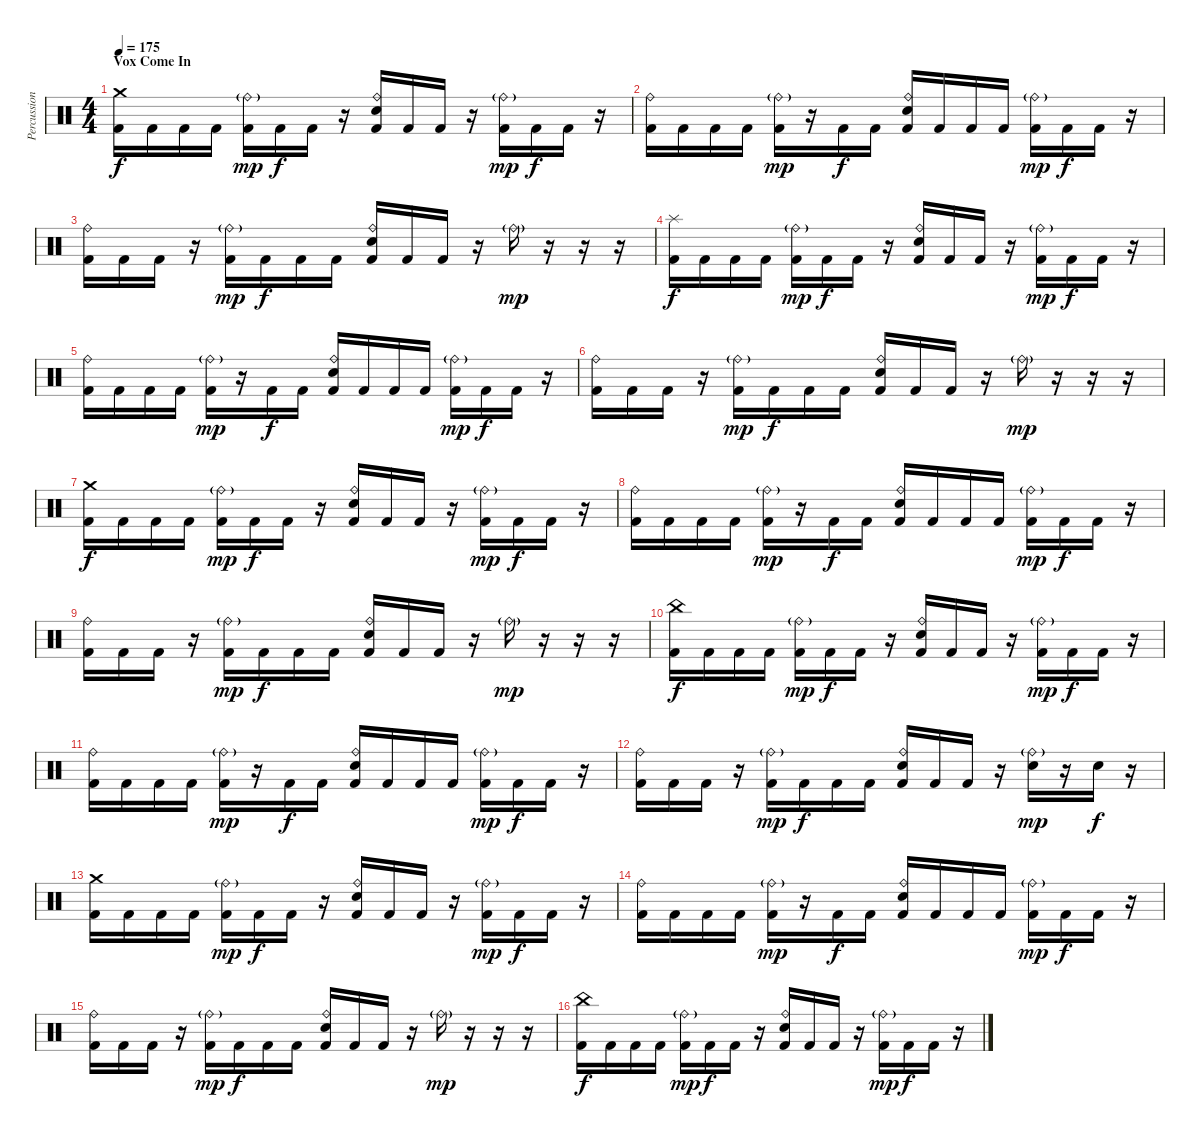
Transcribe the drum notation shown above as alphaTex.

\track ("Percussion" "Percussion") {instrument percussion}
\staff {score}
\articulation defaults
\ts (4 4)
\section ("" "Vox Come In")
\tempo 175
\clef neutral
\ks c
("Crash medium (hit)" "Kick (hit) 2").16{dy f} "Kick (hit) 2".16 "Kick (hit) 2".16 "Kick (hit) 2".16 ("Ride (bell)"{g} "Kick (hit) 2").16{dy mp} "Kick (hit) 2".16{dy f} "Kick (hit) 2".16 r.16 ("Ride (bell)" "Electric Snare (hit)" "Kick (hit) 2").16 "Kick (hit) 2".16 "Kick (hit) 2".16 r.16 ("Ride (bell)"{g} "Kick (hit) 2").16{dy mp} "Kick (hit) 2".16{dy f} "Kick (hit) 2".16 r.16 |
("Ride (bell)" "Kick (hit) 2").16 "Kick (hit) 2".16 "Kick (hit) 2".16 "Kick (hit) 2".16 ("Ride (bell)"{g} "Kick (hit) 2").16{dy mp} r.16 "Kick (hit) 2".16{dy f} "Kick (hit) 2".16 ("Ride (bell)" "Electric Snare (hit)" "Kick (hit) 2").16 "Kick (hit) 2".16 "Kick (hit) 2".16 "Kick (hit) 2".16 ("Ride (bell)"{g} "Kick (hit) 2").16{dy mp} "Kick (hit) 2".16{dy f} "Kick (hit) 2".16 r.16 |
("Ride (bell)" "Kick (hit) 2").16 "Kick (hit) 2".16 "Kick (hit) 2".16 r.16 ("Ride (bell)"{g} "Kick (hit) 2").16{dy mp} "Kick (hit) 2".16{dy f} "Kick (hit) 2".16 "Kick (hit) 2".16 ("Ride (bell)" "Electric Snare (hit)" "Kick (hit) 2").16 "Kick (hit) 2".16 "Kick (hit) 2".16 r.16 "Ride (bell)"{g}.16{dy mp} r.16 r.16 r.16 |
("Splash (hit)" "Kick (hit) 2").16{dy f} "Kick (hit) 2".16 "Kick (hit) 2".16 "Kick (hit) 2".16 ("Ride (bell)"{g} "Kick (hit) 2").16{dy mp} "Kick (hit) 2".16{dy f} "Kick (hit) 2".16 r.16 ("Ride (bell)" "Electric Snare (hit)" "Kick (hit) 2").16 "Kick (hit) 2".16 "Kick (hit) 2".16 r.16 ("Ride (bell)"{g} "Kick (hit) 2").16{dy mp} "Kick (hit) 2".16{dy f} "Kick (hit) 2".16 r.16 |
("Ride (bell)" "Kick (hit) 2").16 "Kick (hit) 2".16 "Kick (hit) 2".16 "Kick (hit) 2".16 ("Ride (bell)"{g} "Kick (hit) 2").16{dy mp} r.16 "Kick (hit) 2".16{dy f} "Kick (hit) 2".16 ("Ride (bell)" "Electric Snare (hit)" "Kick (hit) 2").16 "Kick (hit) 2".16 "Kick (hit) 2".16 "Kick (hit) 2".16 ("Ride (bell)"{g} "Kick (hit) 2").16{dy mp} "Kick (hit) 2".16{dy f} "Kick (hit) 2".16 r.16 |
("Ride (bell)" "Kick (hit) 2").16 "Kick (hit) 2".16 "Kick (hit) 2".16 r.16 ("Ride (bell)"{g} "Kick (hit) 2").16{dy mp} "Kick (hit) 2".16{dy f} "Kick (hit) 2".16 "Kick (hit) 2".16 ("Ride (bell)" "Electric Snare (hit)" "Kick (hit) 2").16 "Kick (hit) 2".16 "Kick (hit) 2".16 r.16 "Ride (bell)"{g}.16{dy mp} r.16 r.16 r.16 |
("Crash medium (hit)" "Kick (hit) 2").16{dy f} "Kick (hit) 2".16 "Kick (hit) 2".16 "Kick (hit) 2".16 ("Ride (bell)"{g} "Kick (hit) 2").16{dy mp} "Kick (hit) 2".16{dy f} "Kick (hit) 2".16 r.16 ("Ride (bell)" "Electric Snare (hit)" "Kick (hit) 2").16 "Kick (hit) 2".16 "Kick (hit) 2".16 r.16 ("Ride (bell)"{g} "Kick (hit) 2").16{dy mp} "Kick (hit) 2".16{dy f} "Kick (hit) 2".16 r.16 |
("Ride (bell)" "Kick (hit) 2").16 "Kick (hit) 2".16 "Kick (hit) 2".16 "Kick (hit) 2".16 ("Ride (bell)"{g} "Kick (hit) 2").16{dy mp} r.16 "Kick (hit) 2".16{dy f} "Kick (hit) 2".16 ("Ride (bell)" "Electric Snare (hit)" "Kick (hit) 2").16 "Kick (hit) 2".16 "Kick (hit) 2".16 "Kick (hit) 2".16 ("Ride (bell)"{g} "Kick (hit) 2").16{dy mp} "Kick (hit) 2".16{dy f} "Kick (hit) 2".16 r.16 |
("Ride (bell)" "Kick (hit) 2").16 "Kick (hit) 2".16 "Kick (hit) 2".16 r.16 ("Ride (bell)"{g} "Kick (hit) 2").16{dy mp} "Kick (hit) 2".16{dy f} "Kick (hit) 2".16 "Kick (hit) 2".16 ("Ride (bell)" "Electric Snare (hit)" "Kick (hit) 2").16 "Kick (hit) 2".16 "Kick (hit) 2".16 r.16 "Ride (bell)"{g}.16{dy mp} r.16 r.16 r.16 |
("China (hit)" "Kick (hit) 2").16{dy f} "Kick (hit) 2".16 "Kick (hit) 2".16 "Kick (hit) 2".16 ("Ride (bell)"{g} "Kick (hit) 2").16{dy mp} "Kick (hit) 2".16{dy f} "Kick (hit) 2".16 r.16 ("Ride (bell)" "Electric Snare (hit)" "Kick (hit) 2").16 "Kick (hit) 2".16 "Kick (hit) 2".16 r.16 ("Ride (bell)"{g} "Kick (hit) 2").16{dy mp} "Kick (hit) 2".16{dy f} "Kick (hit) 2".16 r.16 |
("Ride (bell)" "Kick (hit) 2").16 "Kick (hit) 2".16 "Kick (hit) 2".16 "Kick (hit) 2".16 ("Ride (bell)"{g} "Kick (hit) 2").16{dy mp} r.16 "Kick (hit) 2".16{dy f} "Kick (hit) 2".16 ("Ride (bell)" "Electric Snare (hit)" "Kick (hit) 2").16 "Kick (hit) 2".16 "Kick (hit) 2".16 "Kick (hit) 2".16 ("Ride (bell)"{g} "Kick (hit) 2").16{dy mp} "Kick (hit) 2".16{dy f} "Kick (hit) 2".16 r.16 |
("Ride (bell)" "Kick (hit) 2").16 "Kick (hit) 2".16 "Kick (hit) 2".16 r.16 ("Ride (bell)"{g} "Kick (hit) 2").16{dy mp} "Kick (hit) 2".16{dy f} "Kick (hit) 2".16 "Kick (hit) 2".16 ("Ride (bell)" "Electric Snare (hit)" "Kick (hit) 2").16 "Kick (hit) 2".16 "Kick (hit) 2".16 r.16 ("Ride (bell)"{g} "Electric Snare (hit)").16{dy mp} r.16 "Electric Snare (hit)".16{dy f} r.16 |
("Crash medium (hit)" "Kick (hit) 2").16 "Kick (hit) 2".16 "Kick (hit) 2".16 "Kick (hit) 2".16 ("Ride (bell)"{g} "Kick (hit) 2").16{dy mp} "Kick (hit) 2".16{dy f} "Kick (hit) 2".16 r.16 ("Ride (bell)" "Electric Snare (hit)" "Kick (hit) 2").16 "Kick (hit) 2".16 "Kick (hit) 2".16 r.16 ("Ride (bell)"{g} "Kick (hit) 2").16{dy mp} "Kick (hit) 2".16{dy f} "Kick (hit) 2".16 r.16 |
("Ride (bell)" "Kick (hit) 2").16 "Kick (hit) 2".16 "Kick (hit) 2".16 "Kick (hit) 2".16 ("Ride (bell)"{g} "Kick (hit) 2").16{dy mp} r.16 "Kick (hit) 2".16{dy f} "Kick (hit) 2".16 ("Ride (bell)" "Electric Snare (hit)" "Kick (hit) 2").16 "Kick (hit) 2".16 "Kick (hit) 2".16 "Kick (hit) 2".16 ("Ride (bell)"{g} "Kick (hit) 2").16{dy mp} "Kick (hit) 2".16{dy f} "Kick (hit) 2".16 r.16 |
("Ride (bell)" "Kick (hit) 2").16 "Kick (hit) 2".16 "Kick (hit) 2".16 r.16 ("Ride (bell)"{g} "Kick (hit) 2").16{dy mp} "Kick (hit) 2".16{dy f} "Kick (hit) 2".16 "Kick (hit) 2".16 ("Ride (bell)" "Electric Snare (hit)" "Kick (hit) 2").16 "Kick (hit) 2".16 "Kick (hit) 2".16 r.16 "Ride (bell)"{g}.16{dy mp} r.16 r.16 r.16 |
("China (hit)" "Kick (hit) 2").16{dy f} "Kick (hit) 2".16 "Kick (hit) 2".16 "Kick (hit) 2".16 ("Ride (bell)"{g} "Kick (hit) 2").16{dy mp} "Kick (hit) 2".16{dy f} "Kick (hit) 2".16 r.16 ("Ride (bell)" "Electric Snare (hit)" "Kick (hit) 2").16 "Kick (hit) 2".16 "Kick (hit) 2".16 r.16 ("Ride (bell)"{g} "Kick (hit) 2").16{dy mp} "Kick (hit) 2".16{dy f} "Kick (hit) 2".16 r.16
